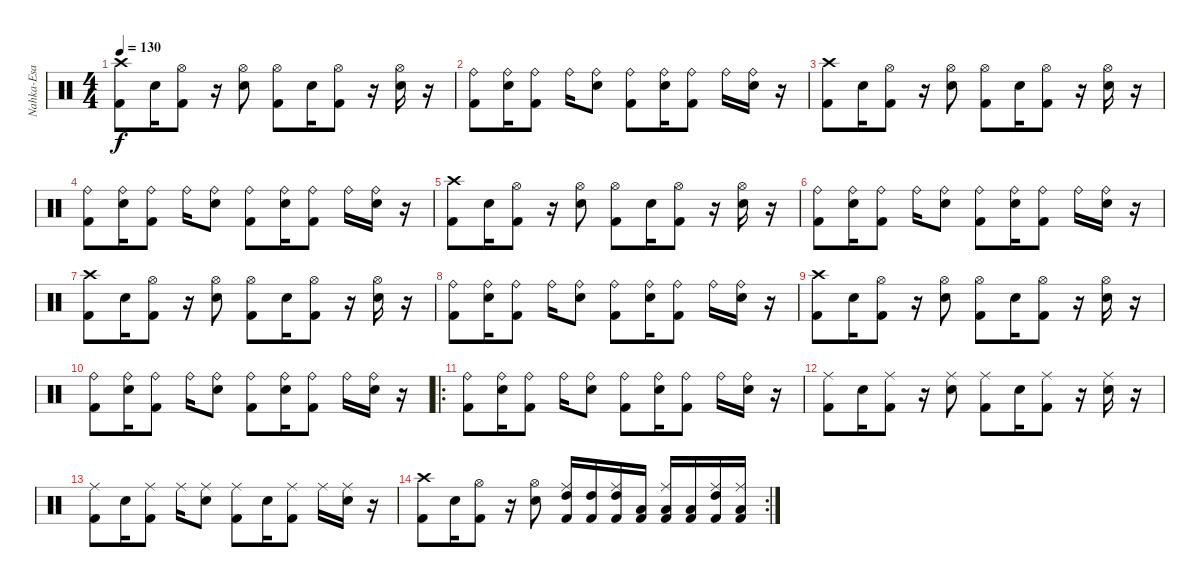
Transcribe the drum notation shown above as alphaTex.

\track ("Nahka-Esa" "Nahka-Esa") {instrument percussion}
\staff {score}
\articulation defaults
\ts (4 4)
\tempo 130
\clef neutral
\ks c
("Crash high (hit)" "Kick (hit) 2").8{dy f} "Snare (hit) 2".16 ("Hi-Hat (open)" "Kick (hit) 2").8 r.16 ("Hi-Hat (open)" "Snare (hit) 2").8 ("Hi-Hat (open)" "Kick (hit) 2").8 "Snare (hit) 2".16 ("Hi-Hat (open)" "Kick (hit) 2").8 r.16 ("Hi-Hat (open)" "Snare (hit) 2").16 r.16 |
("Ride (bell)" "Kick (hit) 2").8 ("Ride (bell)" "Snare (hit) 2").16 ("Ride (bell)" "Kick (hit) 2").8 "Ride (bell)".16 ("Ride (bell)" "Snare (hit) 2").8 ("Ride (bell)" "Kick (hit) 2").8 ("Ride (bell)" "Snare (hit) 2").16 ("Ride (bell)" "Kick (hit) 2").8 "Ride (bell)".16 ("Ride (bell)" "Snare (hit) 2").16 r.16 |
("Crash high (hit)" "Kick (hit) 2").8 "Snare (hit) 2".16 ("Hi-Hat (open)" "Kick (hit) 2").8 r.16 ("Hi-Hat (open)" "Snare (hit) 2").8 ("Hi-Hat (open)" "Kick (hit) 2").8 "Snare (hit) 2".16 ("Hi-Hat (open)" "Kick (hit) 2").8 r.16 ("Hi-Hat (open)" "Snare (hit) 2").16 r.16 |
("Ride (bell)" "Kick (hit) 2").8 ("Ride (bell)" "Snare (hit) 2").16 ("Ride (bell)" "Kick (hit) 2").8 "Ride (bell)".16 ("Ride (bell)" "Snare (hit) 2").8 ("Ride (bell)" "Kick (hit) 2").8 ("Ride (bell)" "Snare (hit) 2").16 ("Ride (bell)" "Kick (hit) 2").8 "Ride (bell)".16 ("Ride (bell)" "Snare (hit) 2").16 r.16 |
("Crash high (hit)" "Kick (hit) 2").8 "Snare (hit) 2".16 ("Hi-Hat (open)" "Kick (hit) 2").8 r.16 ("Hi-Hat (open)" "Snare (hit) 2").8 ("Hi-Hat (open)" "Kick (hit) 2").8 "Snare (hit) 2".16 ("Hi-Hat (open)" "Kick (hit) 2").8 r.16 ("Hi-Hat (open)" "Snare (hit) 2").16 r.16 |
("Ride (bell)" "Kick (hit) 2").8 ("Ride (bell)" "Snare (hit) 2").16 ("Ride (bell)" "Kick (hit) 2").8 "Ride (bell)".16 ("Ride (bell)" "Snare (hit) 2").8 ("Ride (bell)" "Kick (hit) 2").8 ("Ride (bell)" "Snare (hit) 2").16 ("Ride (bell)" "Kick (hit) 2").8 "Ride (bell)".16 ("Ride (bell)" "Snare (hit) 2").16 r.16 |
("Crash high (hit)" "Kick (hit) 2").8 "Snare (hit) 2".16 ("Hi-Hat (open)" "Kick (hit) 2").8 r.16 ("Hi-Hat (open)" "Snare (hit) 2").8 ("Hi-Hat (open)" "Kick (hit) 2").8 "Snare (hit) 2".16 ("Hi-Hat (open)" "Kick (hit) 2").8 r.16 ("Hi-Hat (open)" "Snare (hit) 2").16 r.16 |
("Ride (bell)" "Kick (hit) 2").8 ("Ride (bell)" "Snare (hit) 2").16 ("Ride (bell)" "Kick (hit) 2").8 "Ride (bell)".16 ("Ride (bell)" "Snare (hit) 2").8 ("Ride (bell)" "Kick (hit) 2").8 ("Ride (bell)" "Snare (hit) 2").16 ("Ride (bell)" "Kick (hit) 2").8 "Ride (bell)".16 ("Ride (bell)" "Snare (hit) 2").16 r.16 |
("Crash high (hit)" "Kick (hit) 2").8 "Snare (hit) 2".16 ("Hi-Hat (open)" "Kick (hit) 2").8 r.16 ("Hi-Hat (open)" "Snare (hit) 2").8 ("Hi-Hat (open)" "Kick (hit) 2").8 "Snare (hit) 2".16 ("Hi-Hat (open)" "Kick (hit) 2").8 r.16 ("Hi-Hat (open)" "Snare (hit) 2").16 r.16 |
("Ride (bell)" "Kick (hit) 2").8 ("Ride (bell)" "Snare (hit) 2").16 ("Ride (bell)" "Kick (hit) 2").8 "Ride (bell)".16 ("Ride (bell)" "Snare (hit) 2").8 ("Ride (bell)" "Kick (hit) 2").8 ("Ride (bell)" "Snare (hit) 2").16 ("Ride (bell)" "Kick (hit) 2").8 "Ride (bell)".16 ("Ride (bell)" "Snare (hit) 2").16 r.16 |
\ro
("Ride (bell)" "Kick (hit) 2").8{volume 14} ("Ride (bell)" "Snare (hit) 2").16 ("Ride (bell)" "Kick (hit) 2").8 "Ride (bell)".16 ("Ride (bell)" "Snare (hit) 2").8 ("Ride (bell)" "Kick (hit) 2").8 ("Ride (bell)" "Snare (hit) 2").16 ("Ride (bell)" "Kick (hit) 2").8 "Ride (bell)".16 ("Ride (bell)" "Snare (hit) 2").16 r.16 |
("Ride (middle)" "Kick (hit) 2").8 "Snare (hit) 2".16 ("Ride (middle)" "Kick (hit) 2").8 r.16 ("Ride (middle)" "Snare (hit) 2").8 ("Ride (middle)" "Kick (hit) 2").8 "Snare (hit) 2".16 ("Ride (middle)" "Kick (hit) 2").8 r.16 ("Ride (middle)" "Snare (hit) 2").16 r.16 |
("Ride (middle)" "Kick (hit) 2").8 "Snare (hit) 2".16 ("Ride (middle)" "Kick (hit) 2").8 "Ride (middle)".16 ("Ride (middle)" "Snare (hit) 2").8 ("Ride (middle)" "Kick (hit) 2").8 "Snare (hit) 2".16 ("Ride (middle)" "Kick (hit) 2").8 "Ride (middle)".16 ("Ride (middle)" "Snare (hit) 2").16 r.16 |
\rc 2
("Crash high (hit)" "Kick (hit) 2").8 "Snare (hit) 2".16 ("Hi-Hat (open)" "Kick (hit) 2").8 r.16 ("Hi-Hat (open)" "Snare (hit) 2").8 ("Ride (middle)" "High Tom (hit)" "Kick (hit) 2").16 ("High Tom (hit)" "Kick (hit) 2").16 ("Ride (middle)" "High Tom (hit)" "Kick (hit) 2").16 ("Low Tom (hit)" "Kick (hit) 2").16 ("Ride (middle)" "Low Tom (hit)" "Kick (hit) 2").16 ("Low Tom (hit)" "Kick (hit) 2").16 ("Ride (middle)" "High Tom (hit)" "Kick (hit) 2").16 ("Ride (middle)" "Low Tom (hit)" "Kick (hit) 2").16
